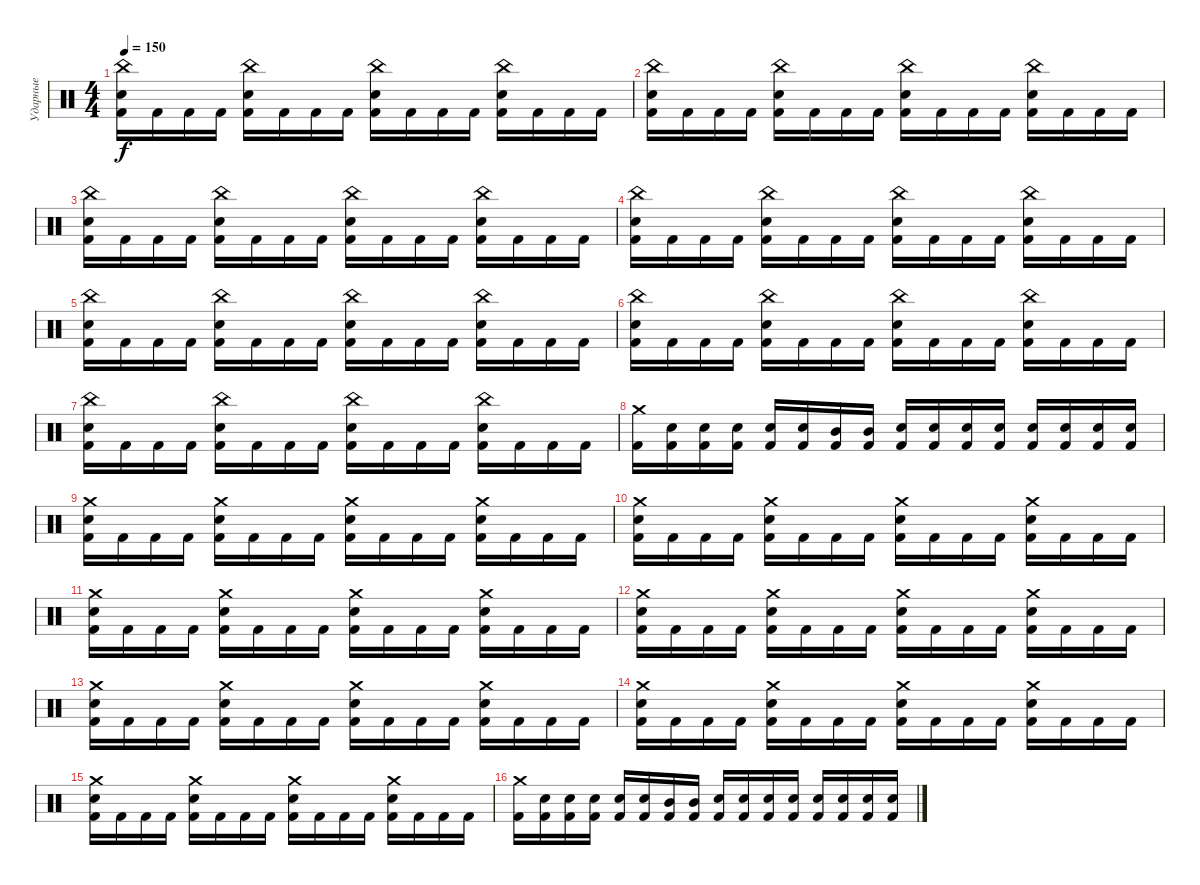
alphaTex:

\track ("Ударные" "Ударные") {instrument percussion}
\staff {score}
\articulation defaults
\ts (4 4)
\tempo 150
\clef neutral
\ks c
("China (hit)" "Electric Snare (hit)" "Kick (hit) 2").16{dy f} "Kick (hit) 2".16 "Kick (hit) 2".16 "Kick (hit) 2".16 ("China (hit)" "Electric Snare (hit)" "Kick (hit) 2").16 "Kick (hit) 2".16 "Kick (hit) 2".16 "Kick (hit) 2".16 ("China (hit)" "Electric Snare (hit)" "Kick (hit) 2").16 "Kick (hit) 2".16 "Kick (hit) 2".16 "Kick (hit) 2".16 ("China (hit)" "Electric Snare (hit)" "Kick (hit) 2").16 "Kick (hit) 2".16 "Kick (hit) 2".16 "Kick (hit) 2".16 |
("China (hit)" "Electric Snare (hit)" "Kick (hit) 2").16 "Kick (hit) 2".16 "Kick (hit) 2".16 "Kick (hit) 2".16 ("China (hit)" "Electric Snare (hit)" "Kick (hit) 2").16 "Kick (hit) 2".16 "Kick (hit) 2".16 "Kick (hit) 2".16 ("China (hit)" "Electric Snare (hit)" "Kick (hit) 2").16 "Kick (hit) 2".16 "Kick (hit) 2".16 "Kick (hit) 2".16 ("China (hit)" "Electric Snare (hit)" "Kick (hit) 2").16 "Kick (hit) 2".16 "Kick (hit) 2".16 "Kick (hit) 2".16 |
("China (hit)" "Electric Snare (hit)" "Kick (hit) 2").16 "Kick (hit) 2".16 "Kick (hit) 2".16 "Kick (hit) 2".16 ("China (hit)" "Electric Snare (hit)" "Kick (hit) 2").16 "Kick (hit) 2".16 "Kick (hit) 2".16 "Kick (hit) 2".16 ("China (hit)" "Electric Snare (hit)" "Kick (hit) 2").16 "Kick (hit) 2".16 "Kick (hit) 2".16 "Kick (hit) 2".16 ("China (hit)" "Electric Snare (hit)" "Kick (hit) 2").16 "Kick (hit) 2".16 "Kick (hit) 2".16 "Kick (hit) 2".16 |
("China (hit)" "Electric Snare (hit)" "Kick (hit) 2").16 "Kick (hit) 2".16 "Kick (hit) 2".16 "Kick (hit) 2".16 ("China (hit)" "Electric Snare (hit)" "Kick (hit) 2").16 "Kick (hit) 2".16 "Kick (hit) 2".16 "Kick (hit) 2".16 ("China (hit)" "Electric Snare (hit)" "Kick (hit) 2").16 "Kick (hit) 2".16 "Kick (hit) 2".16 "Kick (hit) 2".16 ("China (hit)" "Electric Snare (hit)" "Kick (hit) 2").16 "Kick (hit) 2".16 "Kick (hit) 2".16 "Kick (hit) 2".16 |
("China (hit)" "Electric Snare (hit)" "Kick (hit) 2").16 "Kick (hit) 2".16 "Kick (hit) 2".16 "Kick (hit) 2".16 ("China (hit)" "Electric Snare (hit)" "Kick (hit) 2").16 "Kick (hit) 2".16 "Kick (hit) 2".16 "Kick (hit) 2".16 ("China (hit)" "Electric Snare (hit)" "Kick (hit) 2").16 "Kick (hit) 2".16 "Kick (hit) 2".16 "Kick (hit) 2".16 ("China (hit)" "Electric Snare (hit)" "Kick (hit) 2").16 "Kick (hit) 2".16 "Kick (hit) 2".16 "Kick (hit) 2".16 |
("China (hit)" "Electric Snare (hit)" "Kick (hit) 2").16 "Kick (hit) 2".16 "Kick (hit) 2".16 "Kick (hit) 2".16 ("China (hit)" "Electric Snare (hit)" "Kick (hit) 2").16 "Kick (hit) 2".16 "Kick (hit) 2".16 "Kick (hit) 2".16 ("China (hit)" "Electric Snare (hit)" "Kick (hit) 2").16 "Kick (hit) 2".16 "Kick (hit) 2".16 "Kick (hit) 2".16 ("China (hit)" "Electric Snare (hit)" "Kick (hit) 2").16 "Kick (hit) 2".16 "Kick (hit) 2".16 "Kick (hit) 2".16 |
("China (hit)" "Electric Snare (hit)" "Kick (hit) 2").16 "Kick (hit) 2".16 "Kick (hit) 2".16 "Kick (hit) 2".16 ("China (hit)" "Electric Snare (hit)" "Kick (hit) 2").16 "Kick (hit) 2".16 "Kick (hit) 2".16 "Kick (hit) 2".16 ("China (hit)" "Electric Snare (hit)" "Kick (hit) 2").16 "Kick (hit) 2".16 "Kick (hit) 2".16 "Kick (hit) 2".16 ("China (hit)" "Electric Snare (hit)" "Kick (hit) 2").16 "Kick (hit) 2".16 "Kick (hit) 2".16 "Kick (hit) 2".16 |
("Crash medium (hit)" "Kick (hit) 2").16 ("Electric Snare (hit)" "Kick (hit) 2").16 ("Electric Snare (hit)" "Kick (hit) 2").16 ("Electric Snare (hit)" "Kick (hit) 2").16 ("Electric Snare (hit)" "Kick (hit) 2").16 ("Electric Snare (hit)" "Kick (hit) 2").16 ("Mid Tom (hit)" "Kick (hit) 2").16 ("Mid Tom (hit)" "Kick (hit) 2").16 ("Electric Snare (hit)" "Kick (hit) 2").16 ("Electric Snare (hit)" "Kick (hit) 2").16 ("Electric Snare (hit)" "Kick (hit) 2").16 ("Electric Snare (hit)" "Kick (hit) 2").16 ("Electric Snare (hit)" "Kick (hit) 2").16 ("Electric Snare (hit)" "Kick (hit) 2").16 ("Electric Snare (hit)" "Kick (hit) 2").16 ("Electric Snare (hit)" "Kick (hit) 2").16 |
("Crash medium (hit)" "Electric Snare (hit)" "Kick (hit) 2").16 "Kick (hit) 2".16 "Kick (hit) 2".16 "Kick (hit) 2".16 ("Crash medium (hit)" "Electric Snare (hit)" "Kick (hit) 2").16 "Kick (hit) 2".16 "Kick (hit) 2".16 "Kick (hit) 2".16 ("Crash medium (hit)" "Electric Snare (hit)" "Kick (hit) 2").16 "Kick (hit) 2".16 "Kick (hit) 2".16 "Kick (hit) 2".16 ("Crash medium (hit)" "Electric Snare (hit)" "Kick (hit) 2").16 "Kick (hit) 2".16 "Kick (hit) 2".16 "Kick (hit) 2".16 |
("Crash medium (hit)" "Electric Snare (hit)" "Kick (hit) 2").16 "Kick (hit) 2".16 "Kick (hit) 2".16 "Kick (hit) 2".16 ("Crash medium (hit)" "Electric Snare (hit)" "Kick (hit) 2").16 "Kick (hit) 2".16 "Kick (hit) 2".16 "Kick (hit) 2".16 ("Crash medium (hit)" "Electric Snare (hit)" "Kick (hit) 2").16 "Kick (hit) 2".16 "Kick (hit) 2".16 "Kick (hit) 2".16 ("Crash medium (hit)" "Electric Snare (hit)" "Kick (hit) 2").16 "Kick (hit) 2".16 "Kick (hit) 2".16 "Kick (hit) 2".16 |
("Crash medium (hit)" "Electric Snare (hit)" "Kick (hit) 2").16 "Kick (hit) 2".16 "Kick (hit) 2".16 "Kick (hit) 2".16 ("Crash medium (hit)" "Electric Snare (hit)" "Kick (hit) 2").16 "Kick (hit) 2".16 "Kick (hit) 2".16 "Kick (hit) 2".16 ("Crash medium (hit)" "Electric Snare (hit)" "Kick (hit) 2").16 "Kick (hit) 2".16 "Kick (hit) 2".16 "Kick (hit) 2".16 ("Crash medium (hit)" "Electric Snare (hit)" "Kick (hit) 2").16 "Kick (hit) 2".16 "Kick (hit) 2".16 "Kick (hit) 2".16 |
("Crash medium (hit)" "Electric Snare (hit)" "Kick (hit) 2").16 "Kick (hit) 2".16 "Kick (hit) 2".16 "Kick (hit) 2".16 ("Crash medium (hit)" "Electric Snare (hit)" "Kick (hit) 2").16 "Kick (hit) 2".16 "Kick (hit) 2".16 "Kick (hit) 2".16 ("Crash medium (hit)" "Electric Snare (hit)" "Kick (hit) 2").16 "Kick (hit) 2".16 "Kick (hit) 2".16 "Kick (hit) 2".16 ("Crash medium (hit)" "Electric Snare (hit)" "Kick (hit) 2").16 "Kick (hit) 2".16 "Kick (hit) 2".16 "Kick (hit) 2".16 |
("Crash medium (hit)" "Electric Snare (hit)" "Kick (hit) 2").16 "Kick (hit) 2".16 "Kick (hit) 2".16 "Kick (hit) 2".16 ("Crash medium (hit)" "Electric Snare (hit)" "Kick (hit) 2").16 "Kick (hit) 2".16 "Kick (hit) 2".16 "Kick (hit) 2".16 ("Crash medium (hit)" "Electric Snare (hit)" "Kick (hit) 2").16 "Kick (hit) 2".16 "Kick (hit) 2".16 "Kick (hit) 2".16 ("Crash medium (hit)" "Electric Snare (hit)" "Kick (hit) 2").16 "Kick (hit) 2".16 "Kick (hit) 2".16 "Kick (hit) 2".16 |
("Crash medium (hit)" "Electric Snare (hit)" "Kick (hit) 2").16 "Kick (hit) 2".16 "Kick (hit) 2".16 "Kick (hit) 2".16 ("Crash medium (hit)" "Electric Snare (hit)" "Kick (hit) 2").16 "Kick (hit) 2".16 "Kick (hit) 2".16 "Kick (hit) 2".16 ("Crash medium (hit)" "Electric Snare (hit)" "Kick (hit) 2").16 "Kick (hit) 2".16 "Kick (hit) 2".16 "Kick (hit) 2".16 ("Crash medium (hit)" "Electric Snare (hit)" "Kick (hit) 2").16 "Kick (hit) 2".16 "Kick (hit) 2".16 "Kick (hit) 2".16 |
("Crash medium (hit)" "Electric Snare (hit)" "Kick (hit) 2").16 "Kick (hit) 2".16 "Kick (hit) 2".16 "Kick (hit) 2".16 ("Crash medium (hit)" "Electric Snare (hit)" "Kick (hit) 2").16 "Kick (hit) 2".16 "Kick (hit) 2".16 "Kick (hit) 2".16 ("Crash medium (hit)" "Electric Snare (hit)" "Kick (hit) 2").16 "Kick (hit) 2".16 "Kick (hit) 2".16 "Kick (hit) 2".16 ("Crash medium (hit)" "Electric Snare (hit)" "Kick (hit) 2").16 "Kick (hit) 2".16 "Kick (hit) 2".16 "Kick (hit) 2".16 |
("Crash medium (hit)" "Kick (hit) 2").16 ("Electric Snare (hit)" "Kick (hit) 2").16 ("Electric Snare (hit)" "Kick (hit) 2").16 ("Electric Snare (hit)" "Kick (hit) 2").16 ("Electric Snare (hit)" "Kick (hit) 2").16 ("Electric Snare (hit)" "Kick (hit) 2").16 ("Mid Tom (hit)" "Kick (hit) 2").16 ("Mid Tom (hit)" "Kick (hit) 2").16 ("Electric Snare (hit)" "Kick (hit) 2").16 ("Electric Snare (hit)" "Kick (hit) 2").16 ("Electric Snare (hit)" "Kick (hit) 2").16 ("Electric Snare (hit)" "Kick (hit) 2").16 ("Electric Snare (hit)" "Kick (hit) 2").16 ("Electric Snare (hit)" "Kick (hit) 2").16 ("Electric Snare (hit)" "Kick (hit) 2").16 ("Electric Snare (hit)" "Kick (hit) 2").16
